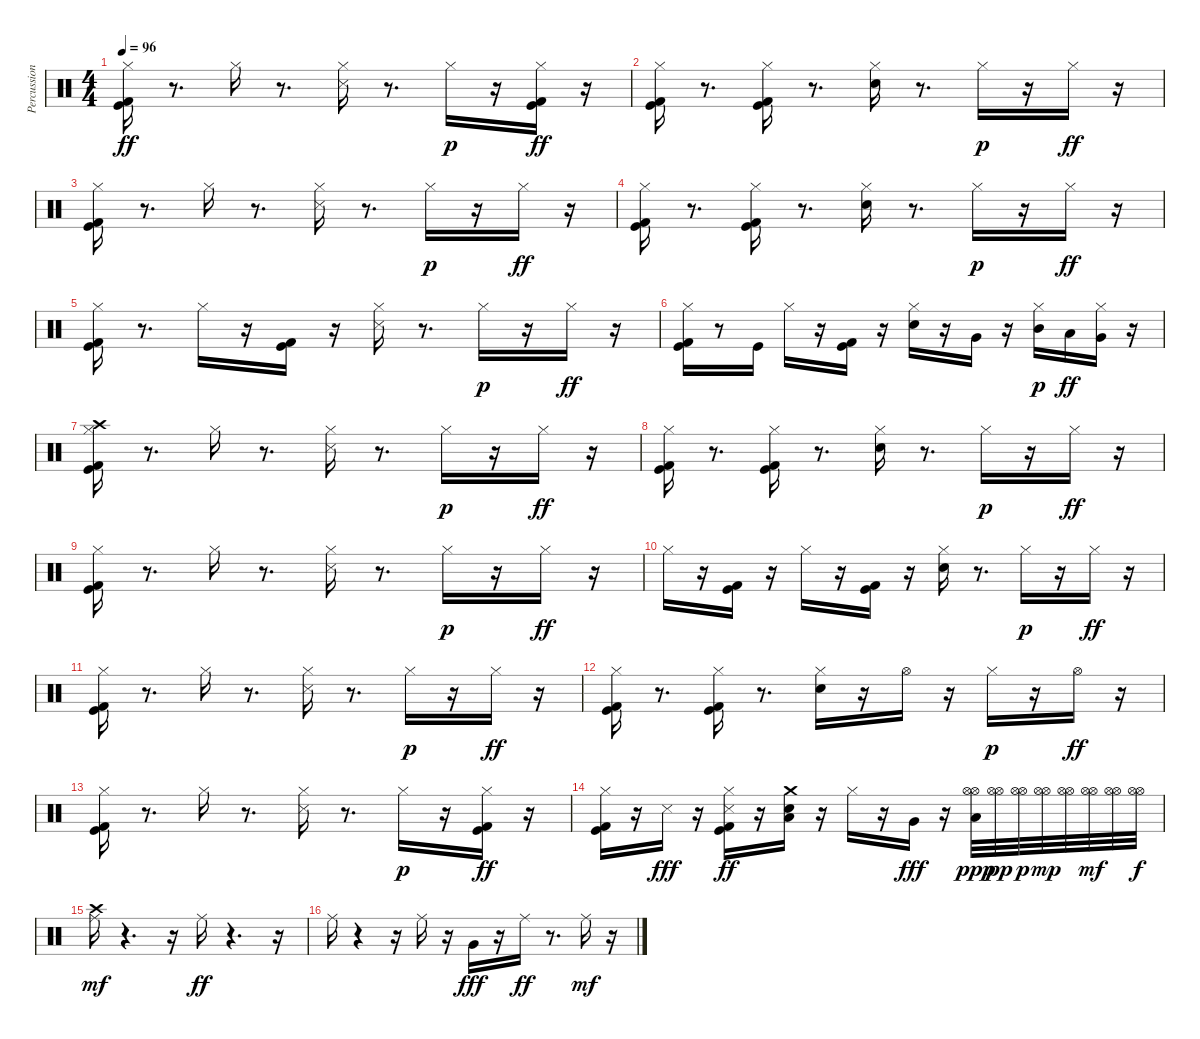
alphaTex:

\track ("Percussion" "Percussion") {instrument percussion}
\staff {score}
\articulation defaults
\ts (4 4)
\tempo 96
\clef neutral
\ks c
("Hi-Hat (closed)" "Kick (hit)" "Kick (hit) 2").16{dy ff} r.8{d} "Hi-Hat (closed)".16 r.8{d} ("Snare (side stick) 3" "Hi-Hat (closed)").16 r.8{d} "Hi-Hat (closed)".16{dy p} r.16 ("Hi-Hat (closed)" "Kick (hit) 2" "Kick (hit)").16{dy ff} r.16 |
("Hi-Hat (closed)" "Kick (hit)" "Kick (hit) 2").16 r.8{d} ("Hi-Hat (closed)" "Kick (hit) 2" "Kick (hit)").16 r.8{d} ("Electric Snare (hit)" "Hi-Hat (closed)").16 r.8{d} "Hi-Hat (closed)".16{dy p} r.16 "Hi-Hat (closed)".16{dy ff} r.16 |
("Hi-Hat (closed)" "Kick (hit)" "Kick (hit) 2").16 r.8{d} "Hi-Hat (closed)".16 r.8{d} ("Snare (side stick) 3" "Hi-Hat (closed)").16 r.8{d} "Hi-Hat (closed)".16{dy p} r.16 "Hi-Hat (closed)".16{dy ff} r.16 |
("Hi-Hat (closed)" "Kick (hit)" "Kick (hit) 2").16 r.8{d} ("Hi-Hat (closed)" "Kick (hit) 2" "Kick (hit)").16 r.8{d} ("Electric Snare (hit)" "Hi-Hat (closed)").16 r.8{d} "Hi-Hat (closed)".16{dy p} r.16 "Hi-Hat (closed)".16{dy ff} r.16 |
("Hi-Hat (closed)" "Kick (hit)" "Kick (hit) 2").16 r.8{d} "Hi-Hat (closed)".16 r.16 ("Kick (hit) 2" "Kick (hit)").16 r.16 ("Snare (side stick) 3" "Hi-Hat (closed)").16 r.8{d} "Hi-Hat (closed)".16{dy p} r.16 "Hi-Hat (closed)".16{dy ff} r.16 |
("Hi-Hat (closed)" "Kick (hit) 2" "Kick (hit)").16 r.8 "Kick (hit)".16 "Hi-Hat (closed)".16 r.16 ("Kick (hit) 2" "Kick (hit)").16 r.16 ("Electric Snare (hit)" "Hi-Hat (closed)").16 r.16 "Very Low Tom (hit)".16 r.16 ("Mid Tom (hit)" "Hi-Hat (closed)").16{dy p} "Low Tom (hit)".16{dy ff} ("Hi-Hat (closed)" "Very Low Tom (hit)").16 r.16 |
("Hi-Hat (closed)" "Crash high (hit)" "Kick (hit) 2" "Kick (hit)").16 r.8{d} "Hi-Hat (closed)".16 r.8{d} ("Snare (side stick) 3" "Hi-Hat (closed)").16 r.8{d} "Hi-Hat (closed)".16{dy p} r.16 "Hi-Hat (closed)".16{dy ff} r.16 |
("Hi-Hat (closed)" "Kick (hit)" "Kick (hit) 2").16 r.8{d} ("Hi-Hat (closed)" "Kick (hit) 2" "Kick (hit)").16 r.8{d} ("Electric Snare (hit)" "Hi-Hat (closed)").16 r.8{d} "Hi-Hat (closed)".16{dy p} r.16 "Hi-Hat (closed)".16{dy ff} r.16 |
("Hi-Hat (closed)" "Kick (hit)" "Kick (hit) 2").16 r.8{d} "Hi-Hat (closed)".16 r.8{d} ("Snare (side stick) 3" "Hi-Hat (closed)").16 r.8{d} "Hi-Hat (closed)".16{dy p} r.16 "Hi-Hat (closed)".16{dy ff} r.16 |
"Hi-Hat (closed)".16 r.16 ("Kick (hit) 2" "Kick (hit)").16 r.16 "Hi-Hat (closed)".16 r.16 ("Kick (hit) 2" "Kick (hit)").16 r.16 ("Electric Snare (hit)" "Hi-Hat (closed)").16 r.8{d} "Hi-Hat (closed)".16{dy p} r.16 "Hi-Hat (closed)".16{dy ff} r.16 |
("Hi-Hat (closed)" "Kick (hit)" "Kick (hit) 2").16 r.8{d} "Hi-Hat (closed)".16 r.8{d} ("Snare (side stick) 3" "Hi-Hat (closed)").16 r.8{d} "Hi-Hat (closed)".16{dy p} r.16 "Hi-Hat (closed)".16{dy ff} r.16 |
("Hi-Hat (closed)" "Kick (hit)" "Kick (hit) 2").16 r.8{d} ("Hi-Hat (closed)" "Kick (hit) 2" "Kick (hit)").16 r.8{d} ("Electric Snare (hit)" "Hi-Hat (closed)").16 r.16 "Hi-Hat (open)".16 r.16 "Hi-Hat (closed)".16{dy p} r.16 "Hi-Hat (open)".16{dy ff} r.16 |
("Hi-Hat (closed)" "Kick (hit)" "Kick (hit) 2").16 r.8{d} "Hi-Hat (closed)".16 r.8{d} ("Snare (side stick) 3" "Hi-Hat (closed)").16 r.8{d} "Hi-Hat (closed)".16{dy p} r.16 ("Hi-Hat (closed)" "Kick (hit) 2" "Kick (hit)").16{dy ff} r.16 |
("Hi-Hat (closed)" "Kick (hit)" "Kick (hit) 2").16 r.16 "Snare (side stick) 3".16{dy fff} r.16 ("Snare (side stick) 3" "Hi-Hat (closed)" "Kick (hit) 2" "Kick (hit)").16{dy ff} r.16 ("Low Tom (hit)" "Electric Snare (hit)" "Crash medium (hit)").16 r.16 "Hi-Hat (closed)".16 r.16 "Very Low Tom (hit)".16{dy fff} r.16 ("Low Floor Tom (hit)" "Hi-Hat (open)" "Hi-Hat (open)").32{dy ppp} ("Hi-Hat (open)" "Hi-Hat (open)").32{dy pp} ("Hi-Hat (open)" "Hi-Hat (open)").32{dy p} ("Hi-Hat (open)" "Hi-Hat (open)").32{dy mp} ("Hi-Hat (open)" "Hi-Hat (open)").32 ("Hi-Hat (open)" "Hi-Hat (open)").32{dy mf} ("Hi-Hat (open)" "Hi-Hat (open)").32 ("Hi-Hat (open)" "Hi-Hat (open)").32{dy f} |
("Ride (middle)" "Crash high (hit)").16{dy mf} r.4{d} r.16 "Ride (middle)".16{dy ff} r.4{d} r.16 |
"Ride (middle)".16 r.4 r.16 "Ride (middle)".16 r.16 "Very Low Tom (hit)".16{dy fff} r.16 "Ride (middle)".16{dy ff} r.8{d} "Ride (middle)".16{dy mf} r.16
